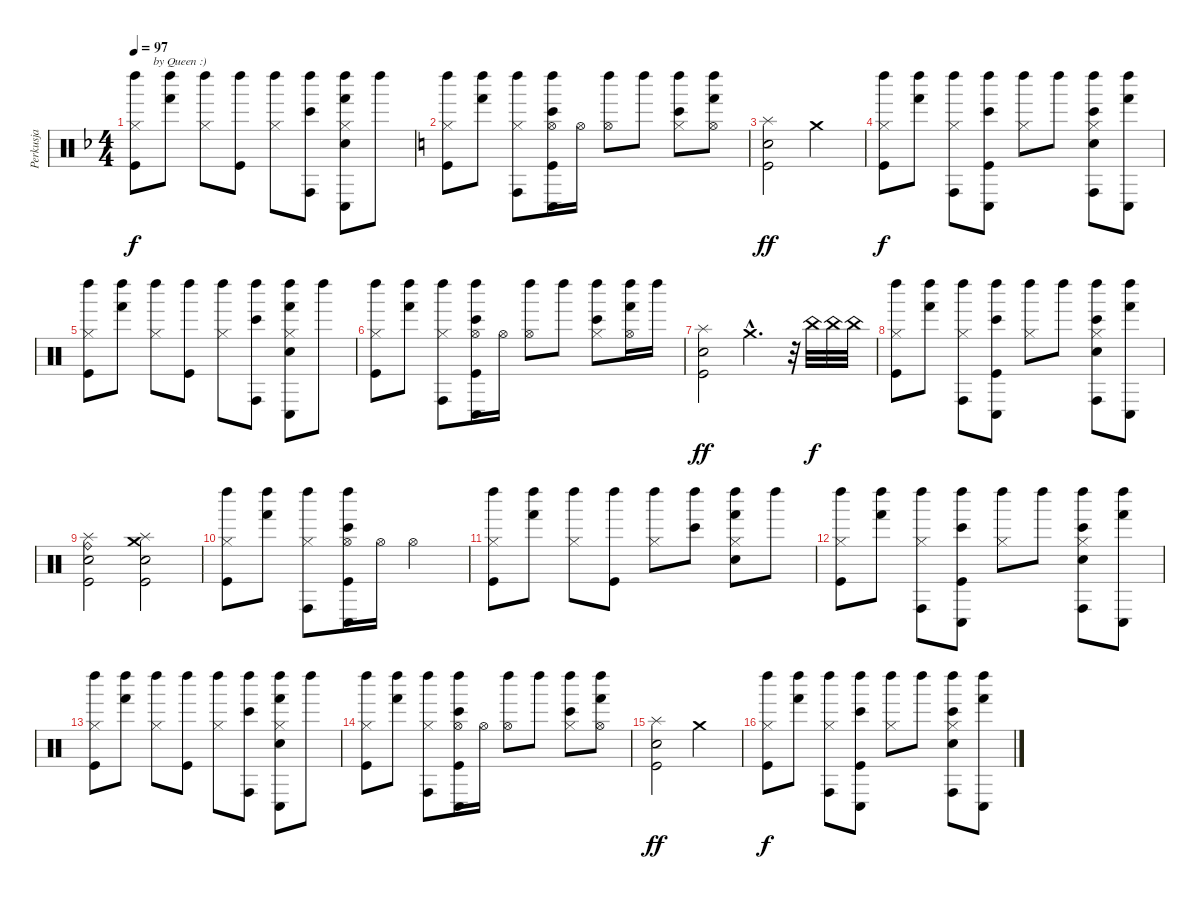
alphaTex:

\track ("Perkusja" "Perkusja") {instrument percussion}
\staff {score}
\articulation defaults
\ts (4 4)
\tempo 97
\clef neutral
\ks f
("Left Maraca (hit)" "Hi-Hat (closed)" "Kick (hit)").8{txt "      by Queen :)" dy f} ("Left Maraca (hit)" "Hand (hit)").8 ("Left Maraca (hit)" "Hi-Hat (closed)").8 ("Left Maraca (hit)" "Kick (hit)").8 ("Left Maraca (hit)" "Hi-Hat (closed)").8 ("Left Maraca (hit)" "Conga high (hit)" "Bongo High (hit)").8 ("Left Maraca (hit)" "Conga low (hit)" "Hand (hit)" "Hi-Hat (closed)" "Snare (hit) 2").8 "Left Maraca (hit)".8 |
\ks c
("Left Maraca (hit)" "Hi-Hat (closed)" "Kick (hit)").8 ("Left Maraca (hit)" "Hand (hit)").8 ("Left Maraca (hit)" "Conga high (hit)" "Hi-Hat (closed)").8 ("Left Maraca (hit)" "Conga low (hit)" "Bongo High (hit)" "Hi-Hat (open)" "Kick (hit)").16 "Hi-Hat (open)".16 ("Left Maraca (hit)" "Hi-Hat (open)").8 "Left Maraca (hit)".8 ("Left Maraca (hit)" "Bongo High (hit)" "Hi-Hat (closed)").8 ("Left Maraca (hit)" "Hand (hit)" "Hi-Hat (open)").8 |
("Electric Snare (hit)" "Kick (hit)" "Splash (hit)").2{dy ff} "Crash medium (hit)".2 |
("Left Maraca (hit)" "Hi-Hat (closed)" "Kick (hit)").8{dy f} ("Left Maraca (hit)" "Hand (hit)").8 ("Left Maraca (hit)" "Conga high (hit)" "Hi-Hat (closed)").8 ("Left Maraca (hit)" "Conga low (hit)" "Bongo High (hit)" "Kick (hit)").8 ("Left Maraca (hit)" "Hi-Hat (closed)").8 "Left Maraca (hit)".8 ("Left Maraca (hit)" "Conga high (hit)" "Bongo High (hit)" "Hi-Hat (closed)" "Snare (hit) 2").8 ("Left Maraca (hit)" "Conga low (hit)" "Hand (hit)").8 |
("Left Maraca (hit)" "Hi-Hat (closed)" "Kick (hit)").8 ("Left Maraca (hit)" "Hand (hit)").8 ("Left Maraca (hit)" "Hi-Hat (closed)").8 ("Left Maraca (hit)" "Kick (hit)").8 ("Left Maraca (hit)" "Hi-Hat (closed)").8 ("Left Maraca (hit)" "Conga high (hit)" "Bongo High (hit)").8 ("Left Maraca (hit)" "Conga low (hit)" "Hand (hit)" "Hi-Hat (closed)" "Snare (hit) 2").8 "Left Maraca (hit)".8 |
("Left Maraca (hit)" "Hi-Hat (closed)" "Kick (hit)").8 ("Left Maraca (hit)" "Hand (hit)").8 ("Left Maraca (hit)" "Conga high (hit)" "Hi-Hat (closed)").8 ("Left Maraca (hit)" "Conga low (hit)" "Bongo High (hit)" "Hi-Hat (open)" "Kick (hit)").16 "Hi-Hat (open)".16 ("Left Maraca (hit)" "Hi-Hat (open)").8 "Left Maraca (hit)".8 ("Left Maraca (hit)" "Bongo High (hit)" "Hi-Hat (closed)").8 ("Left Maraca (hit)" "Hand (hit)" "Hi-Hat (open)").16 "Left Maraca (hit)".16 |
("Electric Snare (hit)" "Kick (hit)" "Splash (hit)").2{dy ff} "Crash medium (hit)"{hac}.4{d} r.32 "China (hit)".32{dy f} "China (hit)".32 "China (hit)".32 |
("Left Maraca (hit)" "Hi-Hat (closed)" "Kick (hit)").8 ("Left Maraca (hit)" "Hand (hit)").8 ("Left Maraca (hit)" "Conga high (hit)" "Hi-Hat (closed)").8 ("Left Maraca (hit)" "Conga low (hit)" "Bongo High (hit)" "Kick (hit)").8 ("Left Maraca (hit)" "Hi-Hat (closed)").8 "Left Maraca (hit)".8 ("Left Maraca (hit)" "Conga high (hit)" "Bongo High (hit)" "Hi-Hat (closed)" "Snare (hit) 2").8 ("Left Maraca (hit)" "Conga low (hit)" "Hand (hit)").8 |
("Snare (hit) 2" "Kick (hit)" "Splash (hit)" "Ride (bell)").2 ("Electric Snare (hit)" "Kick (hit)" "Splash (hit)" "Crash medium (hit)").2 |
("Left Maraca (hit)" "Hi-Hat (closed)" "Kick (hit)").8 ("Left Maraca (hit)" "Hand (hit)").8 ("Left Maraca (hit)" "Conga high (hit)" "Hi-Hat (closed)").8 ("Left Maraca (hit)" "Conga low (hit)" "Bongo High (hit)" "Hi-Hat (open)" "Kick (hit)").16 "Hi-Hat (open)".16 "Hi-Hat (open)".2 |
("Left Maraca (hit)" "Hi-Hat (closed)" "Kick (hit)").8 ("Left Maraca (hit)" "Hand (hit)").8 ("Left Maraca (hit)" "Hi-Hat (closed)").8 ("Left Maraca (hit)" "Kick (hit)").8 ("Left Maraca (hit)" "Hi-Hat (closed)").8 ("Left Maraca (hit)" "Bongo High (hit)").8 ("Left Maraca (hit)" "Hand (hit)" "Hi-Hat (closed)" "Snare (hit) 2").8 "Left Maraca (hit)".8 |
("Left Maraca (hit)" "Hi-Hat (closed)" "Kick (hit)").8 ("Left Maraca (hit)" "Hand (hit)").8 ("Left Maraca (hit)" "Conga high (hit)" "Hi-Hat (closed)").8 ("Left Maraca (hit)" "Conga low (hit)" "Bongo High (hit)" "Kick (hit)").8 ("Left Maraca (hit)" "Hi-Hat (closed)").8 "Left Maraca (hit)".8 ("Left Maraca (hit)" "Conga high (hit)" "Bongo High (hit)" "Hi-Hat (closed)" "Snare (hit) 2").8 ("Left Maraca (hit)" "Conga low (hit)" "Hand (hit)").8 |
("Left Maraca (hit)" "Hi-Hat (closed)" "Kick (hit)").8 ("Left Maraca (hit)" "Hand (hit)").8 ("Left Maraca (hit)" "Hi-Hat (closed)").8 ("Left Maraca (hit)" "Kick (hit)").8 ("Left Maraca (hit)" "Hi-Hat (closed)").8 ("Left Maraca (hit)" "Conga high (hit)" "Bongo High (hit)").8 ("Left Maraca (hit)" "Conga low (hit)" "Hand (hit)" "Hi-Hat (closed)" "Snare (hit) 2").8 "Left Maraca (hit)".8 |
("Left Maraca (hit)" "Hi-Hat (closed)" "Kick (hit)").8 ("Left Maraca (hit)" "Hand (hit)").8 ("Left Maraca (hit)" "Conga high (hit)" "Hi-Hat (closed)").8 ("Left Maraca (hit)" "Conga low (hit)" "Bongo High (hit)" "Hi-Hat (open)" "Kick (hit)").16 "Hi-Hat (open)".16 ("Left Maraca (hit)" "Hi-Hat (open)").8 "Left Maraca (hit)".8 ("Left Maraca (hit)" "Bongo High (hit)" "Hi-Hat (closed)").8 ("Left Maraca (hit)" "Hand (hit)" "Hi-Hat (open)").8 |
("Electric Snare (hit)" "Kick (hit)" "Splash (hit)").2{dy ff} "Crash medium (hit)".2 |
("Left Maraca (hit)" "Hi-Hat (closed)" "Kick (hit)").8{dy f} ("Left Maraca (hit)" "Hand (hit)").8 ("Left Maraca (hit)" "Conga high (hit)" "Hi-Hat (closed)").8 ("Left Maraca (hit)" "Conga low (hit)" "Bongo High (hit)" "Kick (hit)").8 ("Left Maraca (hit)" "Hi-Hat (closed)").8 "Left Maraca (hit)".8 ("Left Maraca (hit)" "Conga high (hit)" "Bongo High (hit)" "Hi-Hat (closed)" "Snare (hit) 2").8 ("Left Maraca (hit)" "Conga low (hit)" "Hand (hit)").8
